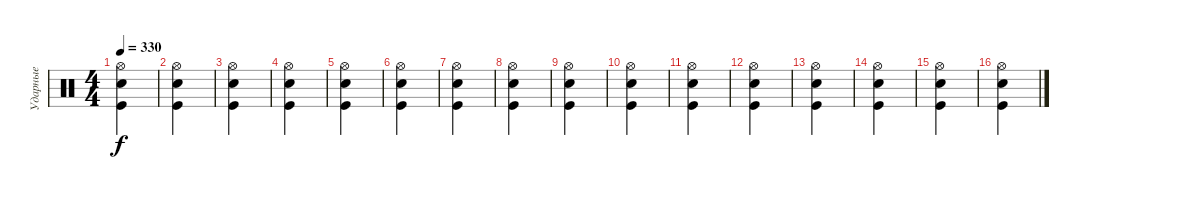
\track ("Ударные" "Ударные") {instrument percussion}
\staff {score}
\articulation defaults
\ts (4 4)
\tempo 330
\clef neutral
\ks c
("Hi-Hat (open)" "Kick (hit)" "Snare (hit) 2").4{dy f} |
("Hi-Hat (open)" "Kick (hit)" "Snare (hit) 2").4 |
("Hi-Hat (open)" "Kick (hit)" "Snare (hit) 2").4 |
("Hi-Hat (open)" "Kick (hit)" "Snare (hit) 2").4 |
("Hi-Hat (open)" "Kick (hit)" "Snare (hit) 2").4 |
("Hi-Hat (open)" "Kick (hit)" "Snare (hit) 2").4 |
("Hi-Hat (open)" "Kick (hit)" "Snare (hit) 2").4 |
("Hi-Hat (open)" "Kick (hit)" "Snare (hit) 2").4 |
("Hi-Hat (open)" "Kick (hit)" "Snare (hit) 2").4 |
("Hi-Hat (open)" "Kick (hit)" "Snare (hit) 2").4 |
("Hi-Hat (open)" "Kick (hit)" "Snare (hit) 2").4 |
("Hi-Hat (open)" "Kick (hit)" "Snare (hit) 2").4 |
("Hi-Hat (open)" "Kick (hit)" "Snare (hit) 2").4 |
("Hi-Hat (open)" "Kick (hit)" "Snare (hit) 2").4 |
("Hi-Hat (open)" "Kick (hit)" "Snare (hit) 2").4 |
("Hi-Hat (open)" "Kick (hit)" "Snare (hit) 2").4
